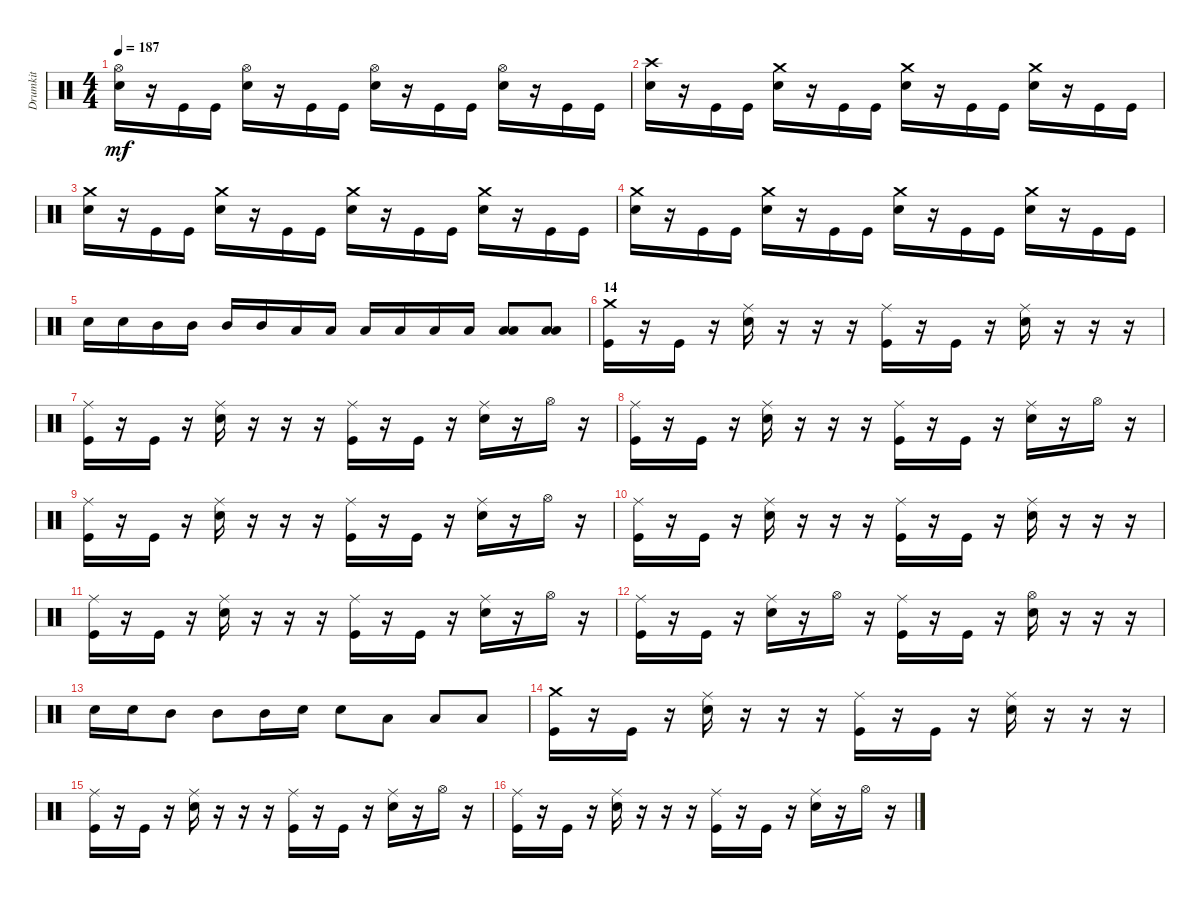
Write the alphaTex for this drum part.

\track ("Drumkit" "Drumkit") {instrument percussion}
\staff {score}
\articulation defaults
\ts (4 4)
\tempo 187
\clef neutral
\ks c
("Snare (hit) 2" "Hi-Hat (open)").16{dy mf} r.16 "Kick (hit)".16 "Kick (hit)".16 ("Snare (hit) 2" "Hi-Hat (open)").16 r.16 "Kick (hit)".16 "Kick (hit)".16 ("Snare (hit) 2" "Hi-Hat (open)").16 r.16 "Kick (hit)".16 "Kick (hit)".16 ("Snare (hit) 2" "Hi-Hat (open)").16 r.16 "Kick (hit)".16 "Kick (hit)".16 |
("Snare (hit) 2" "Crash high (hit)").16 r.16 "Kick (hit)".16 "Kick (hit)".16 ("Snare (hit) 2" "Crash medium (hit)").16 r.16 "Kick (hit)".16 "Kick (hit)".16 ("Snare (hit) 2" "Crash medium (hit)").16 r.16 "Kick (hit)".16 "Kick (hit)".16 ("Snare (hit) 2" "Crash medium (hit)").16 r.16 "Kick (hit)".16 "Kick (hit)".16 |
("Snare (hit) 2" "Crash medium (hit)").16 r.16 "Kick (hit)".16 "Kick (hit)".16 ("Snare (hit) 2" "Crash medium (hit)").16 r.16 "Kick (hit)".16 "Kick (hit)".16 ("Snare (hit) 2" "Crash medium (hit)").16 r.16 "Kick (hit)".16 "Kick (hit)".16 ("Snare (hit) 2" "Crash medium (hit)").16 r.16 "Kick (hit)".16 "Kick (hit)".16 |
("Snare (hit) 2" "Crash medium (hit)").16 r.16 "Kick (hit)".16 "Kick (hit)".16 ("Snare (hit) 2" "Crash medium (hit)").16 r.16 "Kick (hit)".16 "Kick (hit)".16 ("Snare (hit) 2" "Crash medium (hit)").16 r.16 "Kick (hit)".16 "Kick (hit)".16 ("Snare (hit) 2" "Crash medium (hit)").16 r.16 "Kick (hit)".16 "Kick (hit)".16 |
"Snare (hit) 2".16 "Snare (hit) 2".16 "Mid Tom (hit)".16 "Mid Tom (hit)".16 "Mid Tom (hit)".16 "Mid Tom (hit)".16 "Low Tom (hit)".16 "Low Tom (hit)".16 "Low Tom (hit)".16 "Low Tom (hit)".16 "Low Floor Tom (hit)".16 "Low Floor Tom (hit)".16 ("Low Floor Tom (hit)" "Low Tom (hit)").8 ("Low Floor Tom (hit)" "Low Tom (hit)").8 |
\section ("" "14")
("Kick (hit)" "Crash medium (hit)").16 r.16 "Kick (hit)".16 r.16 ("Snare (hit) 2" "Ride (middle)").16 r.16 r.16 r.16 ("Kick (hit)" "Ride (middle)").16 r.16 "Kick (hit)".16 r.16 ("Snare (hit) 2" "Ride (middle)").16 r.16 r.16 r.16 |
("Kick (hit)" "Ride (middle)").16 r.16 "Kick (hit)".16 r.16 ("Snare (hit) 2" "Ride (middle)").16 r.16 r.16 r.16 ("Kick (hit)" "Ride (middle)").16 r.16 "Kick (hit)".16 r.16 ("Snare (hit) 2" "Ride (middle)").16 r.16 "Hi-Hat (open)".16 r.16 |
("Kick (hit)" "Ride (middle)").16 r.16 "Kick (hit)".16 r.16 ("Snare (hit) 2" "Ride (middle)").16 r.16 r.16 r.16 ("Kick (hit)" "Ride (middle)").16 r.16 "Kick (hit)".16 r.16 ("Snare (hit) 2" "Ride (middle)").16 r.16 "Hi-Hat (open)".16 r.16 |
("Kick (hit)" "Ride (middle)").16 r.16 "Kick (hit)".16 r.16 ("Snare (hit) 2" "Ride (middle)").16 r.16 r.16 r.16 ("Kick (hit)" "Ride (middle)").16 r.16 "Kick (hit)".16 r.16 ("Snare (hit) 2" "Ride (middle)").16 r.16 "Hi-Hat (open)".16 r.16 |
("Kick (hit)" "Ride (middle)").16 r.16 "Kick (hit)".16 r.16 ("Snare (hit) 2" "Ride (middle)").16 r.16 r.16 r.16 ("Kick (hit)" "Ride (middle)").16 r.16 "Kick (hit)".16 r.16 ("Snare (hit) 2" "Ride (middle)").16 r.16 r.16 r.16 |
("Kick (hit)" "Ride (middle)").16 r.16 "Kick (hit)".16 r.16 ("Snare (hit) 2" "Ride (middle)").16 r.16 r.16 r.16 ("Kick (hit)" "Ride (middle)").16 r.16 "Kick (hit)".16 r.16 ("Snare (hit) 2" "Ride (middle)").16 r.16 "Hi-Hat (open)".16 r.16 |
("Kick (hit)" "Ride (middle)").16 r.16 "Kick (hit)".16 r.16 ("Snare (hit) 2" "Ride (middle)").16 r.16 "Hi-Hat (open)".16 r.16 ("Kick (hit)" "Ride (middle)").16 r.16 "Kick (hit)".16 r.16 ("Snare (hit) 2" "Hi-Hat (open)").16 r.16 r.16 r.16 |
"Snare (hit) 2".16 "Snare (hit) 2".16 "Mid Tom (hit)".8 "Mid Tom (hit)".8 "Mid Tom (hit)".16 "Snare (hit) 2".16 "Snare (hit) 2".8 "Low Tom (hit)".8 "Low Tom (hit)".8 "Low Tom (hit)".8 |
("Kick (hit)" "Crash medium (hit)").16 r.16 "Kick (hit)".16 r.16 ("Snare (hit) 2" "Ride (middle)").16 r.16 r.16 r.16 ("Kick (hit)" "Ride (middle)").16 r.16 "Kick (hit)".16 r.16 ("Snare (hit) 2" "Ride (middle)").16 r.16 r.16 r.16 |
("Kick (hit)" "Ride (middle)").16 r.16 "Kick (hit)".16 r.16 ("Snare (hit) 2" "Ride (middle)").16 r.16 r.16 r.16 ("Kick (hit)" "Ride (middle)").16 r.16 "Kick (hit)".16 r.16 ("Snare (hit) 2" "Ride (middle)").16 r.16 "Hi-Hat (open)".16 r.16 |
("Kick (hit)" "Ride (middle)").16 r.16 "Kick (hit)".16 r.16 ("Snare (hit) 2" "Ride (middle)").16 r.16 r.16 r.16 ("Kick (hit)" "Ride (middle)").16 r.16 "Kick (hit)".16 r.16 ("Snare (hit) 2" "Ride (middle)").16 r.16 "Hi-Hat (open)".16 r.16
